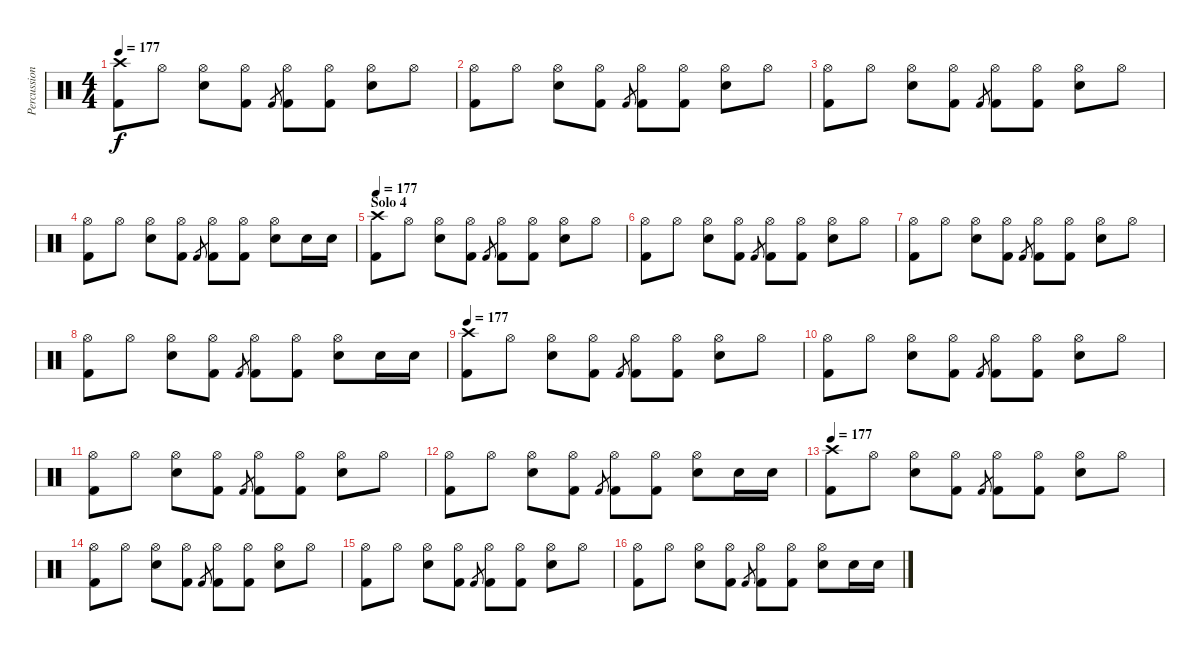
\track ("Percussion" "Percussion") {instrument percussion}
\staff {score}
\articulation defaults
\ts (4 4)
\tempo 177
\clef neutral
\ks c
("Crash high (hit)" "Kick (hit) 2").8{dy f} "Hi-Hat (open)".8 ("Hi-Hat (open)" "Electric Snare (hit)").8 ("Hi-Hat (open)" "Kick (hit) 2").8 "Kick (hit) 2".8{gr} ("Hi-Hat (open)" "Kick (hit) 2").8 ("Hi-Hat (open)" "Kick (hit) 2").8 ("Hi-Hat (open)" "Electric Snare (hit)").8 "Hi-Hat (open)".8 |
("Hi-Hat (open)" "Kick (hit) 2").8 "Hi-Hat (open)".8 ("Hi-Hat (open)" "Electric Snare (hit)").8 ("Hi-Hat (open)" "Kick (hit) 2").8 "Kick (hit) 2".8{gr} ("Hi-Hat (open)" "Kick (hit) 2").8 ("Hi-Hat (open)" "Kick (hit) 2").8 ("Hi-Hat (open)" "Electric Snare (hit)").8 "Hi-Hat (open)".8 |
("Hi-Hat (open)" "Kick (hit) 2").8 "Hi-Hat (open)".8 ("Hi-Hat (open)" "Electric Snare (hit)").8 ("Hi-Hat (open)" "Kick (hit) 2").8 "Kick (hit) 2".8{gr} ("Hi-Hat (open)" "Kick (hit) 2").8 ("Hi-Hat (open)" "Kick (hit) 2").8 ("Hi-Hat (open)" "Electric Snare (hit)").8 "Hi-Hat (open)".8 |
("Hi-Hat (open)" "Kick (hit) 2").8 "Hi-Hat (open)".8 ("Hi-Hat (open)" "Electric Snare (hit)").8 ("Hi-Hat (open)" "Kick (hit) 2").8 "Kick (hit) 2".8{gr} ("Hi-Hat (open)" "Kick (hit) 2").8 ("Hi-Hat (open)" "Kick (hit) 2").8 ("Hi-Hat (open)" "Electric Snare (hit)").8 "Electric Snare (hit)".16 "Electric Snare (hit)".16 |
\section ("" "Solo 4")
\tempo 177
("Crash high (hit)" "Kick (hit) 2").8 "Hi-Hat (open)".8 ("Hi-Hat (open)" "Electric Snare (hit)").8 ("Hi-Hat (open)" "Kick (hit) 2").8 "Kick (hit) 2".8{gr} ("Hi-Hat (open)" "Kick (hit) 2").8 ("Hi-Hat (open)" "Kick (hit) 2").8 ("Hi-Hat (open)" "Electric Snare (hit)").8 "Hi-Hat (open)".8 |
("Hi-Hat (open)" "Kick (hit) 2").8 "Hi-Hat (open)".8 ("Hi-Hat (open)" "Electric Snare (hit)").8 ("Hi-Hat (open)" "Kick (hit) 2").8 "Kick (hit) 2".8{gr} ("Hi-Hat (open)" "Kick (hit) 2").8 ("Hi-Hat (open)" "Kick (hit) 2").8 ("Hi-Hat (open)" "Electric Snare (hit)").8 "Hi-Hat (open)".8 |
("Hi-Hat (open)" "Kick (hit) 2").8 "Hi-Hat (open)".8 ("Hi-Hat (open)" "Electric Snare (hit)").8 ("Hi-Hat (open)" "Kick (hit) 2").8 "Kick (hit) 2".8{gr} ("Hi-Hat (open)" "Kick (hit) 2").8 ("Hi-Hat (open)" "Kick (hit) 2").8 ("Hi-Hat (open)" "Electric Snare (hit)").8 "Hi-Hat (open)".8 |
("Hi-Hat (open)" "Kick (hit) 2").8 "Hi-Hat (open)".8 ("Hi-Hat (open)" "Electric Snare (hit)").8 ("Hi-Hat (open)" "Kick (hit) 2").8 "Kick (hit) 2".8{gr} ("Hi-Hat (open)" "Kick (hit) 2").8 ("Hi-Hat (open)" "Kick (hit) 2").8 ("Hi-Hat (open)" "Electric Snare (hit)").8 "Electric Snare (hit)".16 "Electric Snare (hit)".16 |
\tempo 177
("Crash high (hit)" "Kick (hit) 2").8 "Hi-Hat (open)".8 ("Hi-Hat (open)" "Electric Snare (hit)").8 ("Hi-Hat (open)" "Kick (hit) 2").8 "Kick (hit) 2".8{gr} ("Hi-Hat (open)" "Kick (hit) 2").8 ("Hi-Hat (open)" "Kick (hit) 2").8 ("Hi-Hat (open)" "Electric Snare (hit)").8 "Hi-Hat (open)".8 |
("Hi-Hat (open)" "Kick (hit) 2").8 "Hi-Hat (open)".8 ("Hi-Hat (open)" "Electric Snare (hit)").8 ("Hi-Hat (open)" "Kick (hit) 2").8 "Kick (hit) 2".8{gr} ("Hi-Hat (open)" "Kick (hit) 2").8 ("Hi-Hat (open)" "Kick (hit) 2").8 ("Hi-Hat (open)" "Electric Snare (hit)").8 "Hi-Hat (open)".8 |
("Hi-Hat (open)" "Kick (hit) 2").8 "Hi-Hat (open)".8 ("Hi-Hat (open)" "Electric Snare (hit)").8 ("Hi-Hat (open)" "Kick (hit) 2").8 "Kick (hit) 2".8{gr} ("Hi-Hat (open)" "Kick (hit) 2").8 ("Hi-Hat (open)" "Kick (hit) 2").8 ("Hi-Hat (open)" "Electric Snare (hit)").8 "Hi-Hat (open)".8 |
("Hi-Hat (open)" "Kick (hit) 2").8 "Hi-Hat (open)".8 ("Hi-Hat (open)" "Electric Snare (hit)").8 ("Hi-Hat (open)" "Kick (hit) 2").8 "Kick (hit) 2".8{gr} ("Hi-Hat (open)" "Kick (hit) 2").8 ("Hi-Hat (open)" "Kick (hit) 2").8 ("Hi-Hat (open)" "Electric Snare (hit)").8 "Electric Snare (hit)".16 "Electric Snare (hit)".16 |
\tempo 177
("Crash high (hit)" "Kick (hit) 2").8 "Hi-Hat (open)".8 ("Hi-Hat (open)" "Electric Snare (hit)").8 ("Hi-Hat (open)" "Kick (hit) 2").8 "Kick (hit) 2".8{gr} ("Hi-Hat (open)" "Kick (hit) 2").8 ("Hi-Hat (open)" "Kick (hit) 2").8 ("Hi-Hat (open)" "Electric Snare (hit)").8 "Hi-Hat (open)".8 |
("Hi-Hat (open)" "Kick (hit) 2").8 "Hi-Hat (open)".8 ("Hi-Hat (open)" "Electric Snare (hit)").8 ("Hi-Hat (open)" "Kick (hit) 2").8 "Kick (hit) 2".8{gr} ("Hi-Hat (open)" "Kick (hit) 2").8 ("Hi-Hat (open)" "Kick (hit) 2").8 ("Hi-Hat (open)" "Electric Snare (hit)").8 "Hi-Hat (open)".8 |
("Hi-Hat (open)" "Kick (hit) 2").8 "Hi-Hat (open)".8 ("Hi-Hat (open)" "Electric Snare (hit)").8 ("Hi-Hat (open)" "Kick (hit) 2").8 "Kick (hit) 2".8{gr} ("Hi-Hat (open)" "Kick (hit) 2").8 ("Hi-Hat (open)" "Kick (hit) 2").8 ("Hi-Hat (open)" "Electric Snare (hit)").8 "Hi-Hat (open)".8 |
("Hi-Hat (open)" "Kick (hit) 2").8 "Hi-Hat (open)".8 ("Hi-Hat (open)" "Electric Snare (hit)").8 ("Hi-Hat (open)" "Kick (hit) 2").8 "Kick (hit) 2".8{gr} ("Hi-Hat (open)" "Kick (hit) 2").8 ("Hi-Hat (open)" "Kick (hit) 2").8 ("Hi-Hat (open)" "Electric Snare (hit)").8 "Electric Snare (hit)".16 "Electric Snare (hit)".16
